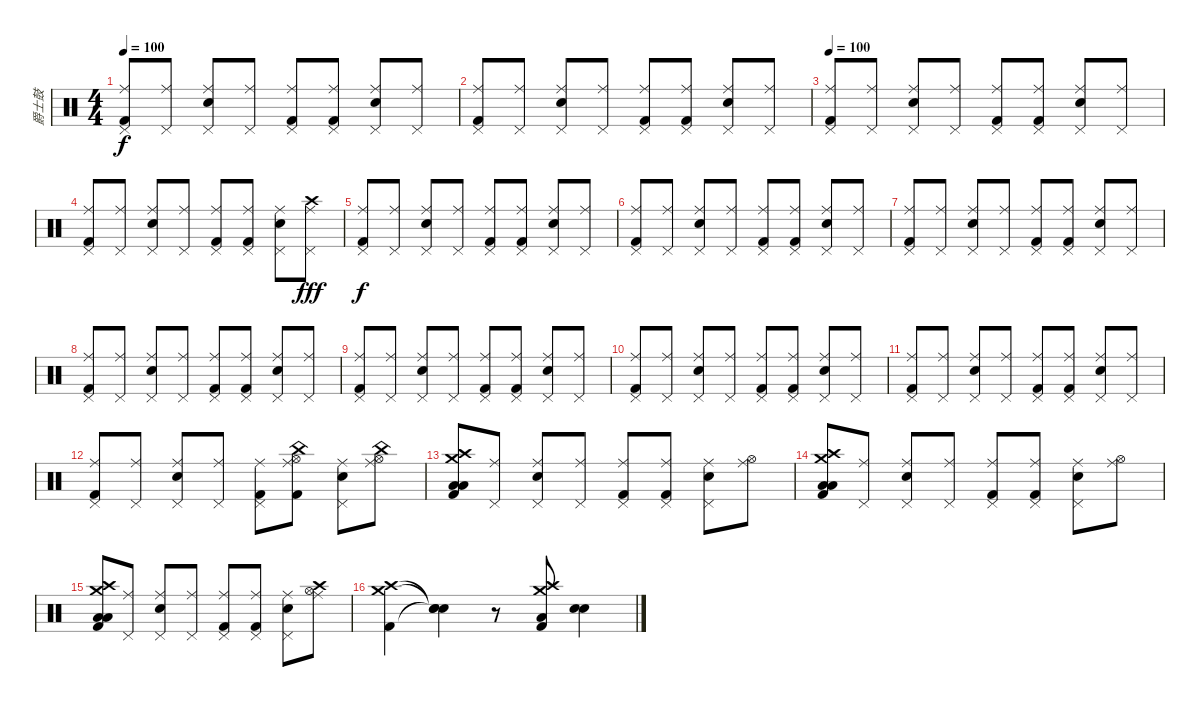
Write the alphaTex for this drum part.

\track ("爵士鼓" "爵士鼓") {instrument percussion}
\staff {score}
\articulation defaults
\ts (4 4)
\tempo 100
\clef neutral
\ks c
("Pedal Hi-Hat (hit)" "Ride (middle)" "Kick (hit) 2").8{dy f} ("Pedal Hi-Hat (hit)" "Ride (middle)").8 ("Pedal Hi-Hat (hit)" "Ride (middle)" "Snare (hit) 2").8 ("Pedal Hi-Hat (hit)" "Ride (middle)").8 ("Pedal Hi-Hat (hit)" "Ride (middle)" "Kick (hit) 2").8 ("Pedal Hi-Hat (hit)" "Ride (middle)" "Kick (hit) 2").8 ("Pedal Hi-Hat (hit)" "Ride (middle)" "Snare (hit) 2").8 ("Pedal Hi-Hat (hit)" "Ride (middle)").8 |
("Pedal Hi-Hat (hit)" "Ride (middle)" "Kick (hit) 2").8 ("Pedal Hi-Hat (hit)" "Ride (middle)").8 ("Pedal Hi-Hat (hit)" "Ride (middle)" "Snare (hit) 2").8 ("Pedal Hi-Hat (hit)" "Ride (middle)").8 ("Pedal Hi-Hat (hit)" "Ride (middle)" "Kick (hit) 2").8 ("Pedal Hi-Hat (hit)" "Ride (middle)" "Kick (hit) 2").8 ("Pedal Hi-Hat (hit)" "Ride (middle)" "Snare (hit) 2").8 ("Pedal Hi-Hat (hit)" "Ride (middle)").8 |
\tempo 100
("Pedal Hi-Hat (hit)" "Ride (middle)" "Kick (hit) 2").8 ("Pedal Hi-Hat (hit)" "Ride (middle)").8 ("Pedal Hi-Hat (hit)" "Ride (middle)" "Snare (hit) 2").8 ("Pedal Hi-Hat (hit)" "Ride (middle)").8 ("Pedal Hi-Hat (hit)" "Ride (middle)" "Kick (hit) 2").8 ("Pedal Hi-Hat (hit)" "Ride (middle)" "Kick (hit) 2").8 ("Pedal Hi-Hat (hit)" "Ride (middle)" "Snare (hit) 2").8 ("Pedal Hi-Hat (hit)" "Ride (middle)").8 |
("Pedal Hi-Hat (hit)" "Ride (middle)" "Kick (hit) 2").8 ("Pedal Hi-Hat (hit)" "Ride (middle)").8 ("Pedal Hi-Hat (hit)" "Ride (middle)" "Snare (hit) 2").8 ("Pedal Hi-Hat (hit)" "Ride (middle)").8 ("Pedal Hi-Hat (hit)" "Ride (middle)" "Kick (hit) 2").8 ("Pedal Hi-Hat (hit)" "Ride (middle)" "Kick (hit) 2").8 ("Pedal Hi-Hat (hit)" "Ride (middle)" "Snare (hit) 2").8 ("Pedal Hi-Hat (hit)" "Ride (middle)" "Crash high (hit)").8{dy fff} |
("Pedal Hi-Hat (hit)" "Ride (middle)" "Kick (hit) 2").8{dy f} ("Pedal Hi-Hat (hit)" "Ride (middle)").8 ("Pedal Hi-Hat (hit)" "Ride (middle)" "Snare (hit) 2").8 ("Pedal Hi-Hat (hit)" "Ride (middle)").8 ("Pedal Hi-Hat (hit)" "Ride (middle)" "Kick (hit) 2").8 ("Pedal Hi-Hat (hit)" "Ride (middle)" "Kick (hit) 2").8 ("Pedal Hi-Hat (hit)" "Ride (middle)" "Snare (hit) 2").8 ("Pedal Hi-Hat (hit)" "Ride (middle)").8 |
("Pedal Hi-Hat (hit)" "Ride (middle)" "Kick (hit) 2").8 ("Pedal Hi-Hat (hit)" "Ride (middle)").8 ("Pedal Hi-Hat (hit)" "Ride (middle)" "Snare (hit) 2").8 ("Pedal Hi-Hat (hit)" "Ride (middle)").8 ("Pedal Hi-Hat (hit)" "Ride (middle)" "Kick (hit) 2").8 ("Pedal Hi-Hat (hit)" "Ride (middle)" "Kick (hit) 2").8 ("Pedal Hi-Hat (hit)" "Ride (middle)" "Snare (hit) 2").8 ("Pedal Hi-Hat (hit)" "Ride (middle)").8 |
("Pedal Hi-Hat (hit)" "Ride (middle)" "Kick (hit) 2").8 ("Pedal Hi-Hat (hit)" "Ride (middle)").8 ("Pedal Hi-Hat (hit)" "Ride (middle)" "Snare (hit) 2").8 ("Pedal Hi-Hat (hit)" "Ride (middle)").8 ("Pedal Hi-Hat (hit)" "Ride (middle)" "Kick (hit) 2").8 ("Pedal Hi-Hat (hit)" "Ride (middle)" "Kick (hit) 2").8 ("Pedal Hi-Hat (hit)" "Ride (middle)" "Snare (hit) 2").8 ("Pedal Hi-Hat (hit)" "Ride (middle)").8 |
("Pedal Hi-Hat (hit)" "Ride (middle)" "Kick (hit) 2").8 ("Pedal Hi-Hat (hit)" "Ride (middle)").8 ("Pedal Hi-Hat (hit)" "Ride (middle)" "Snare (hit) 2").8 ("Pedal Hi-Hat (hit)" "Ride (middle)").8 ("Pedal Hi-Hat (hit)" "Ride (middle)" "Kick (hit) 2").8 ("Pedal Hi-Hat (hit)" "Ride (middle)" "Kick (hit) 2").8 ("Pedal Hi-Hat (hit)" "Ride (middle)" "Snare (hit) 2").8 ("Pedal Hi-Hat (hit)" "Ride (middle)").8 |
("Pedal Hi-Hat (hit)" "Ride (middle)" "Kick (hit) 2").8 ("Pedal Hi-Hat (hit)" "Ride (middle)").8 ("Pedal Hi-Hat (hit)" "Ride (middle)" "Snare (hit) 2").8 ("Pedal Hi-Hat (hit)" "Ride (middle)").8 ("Pedal Hi-Hat (hit)" "Ride (middle)" "Kick (hit) 2").8 ("Pedal Hi-Hat (hit)" "Ride (middle)" "Kick (hit) 2").8 ("Pedal Hi-Hat (hit)" "Ride (middle)" "Snare (hit) 2").8 ("Pedal Hi-Hat (hit)" "Ride (middle)").8 |
("Pedal Hi-Hat (hit)" "Ride (middle)" "Kick (hit) 2").8 ("Pedal Hi-Hat (hit)" "Ride (middle)").8 ("Pedal Hi-Hat (hit)" "Ride (middle)" "Snare (hit) 2").8 ("Pedal Hi-Hat (hit)" "Ride (middle)").8 ("Pedal Hi-Hat (hit)" "Ride (middle)" "Kick (hit) 2").8 ("Pedal Hi-Hat (hit)" "Ride (middle)" "Kick (hit) 2").8 ("Pedal Hi-Hat (hit)" "Ride (middle)" "Snare (hit) 2").8 ("Pedal Hi-Hat (hit)" "Ride (middle)").8 |
("Pedal Hi-Hat (hit)" "Ride (middle)" "Kick (hit) 2").8 ("Pedal Hi-Hat (hit)" "Ride (middle)").8 ("Pedal Hi-Hat (hit)" "Ride (middle)" "Snare (hit) 2").8 ("Pedal Hi-Hat (hit)" "Ride (middle)").8 ("Pedal Hi-Hat (hit)" "Ride (middle)" "Kick (hit) 2").8 ("Pedal Hi-Hat (hit)" "Ride (middle)" "Kick (hit) 2").8 ("Pedal Hi-Hat (hit)" "Ride (middle)" "Snare (hit) 2").8 ("Pedal Hi-Hat (hit)" "Ride (middle)").8 |
("Pedal Hi-Hat (hit)" "Ride (middle)" "Kick (hit) 2").8 ("Pedal Hi-Hat (hit)" "Ride (middle)").8 ("Pedal Hi-Hat (hit)" "Ride (middle)" "Snare (hit) 2").8 ("Pedal Hi-Hat (hit)" "Ride (middle)").8 ("Pedal Hi-Hat (hit)" "Ride (middle)" "Kick (hit) 2").8 ("Hi-Hat (open)" "Ride (middle)" "China (hit)" "Kick (hit) 2").8 ("Pedal Hi-Hat (hit)" "Ride (middle)" "Snare (hit) 2").8 ("Hi-Hat (open)" "Ride (middle)" "China (hit)").8 |
("Crash high (hit)" "Crash medium (hit)" "Low Tom (hit)" "Low Tom (hit)" "Kick (hit) 2").8 ("Pedal Hi-Hat (hit)" "Ride (middle)").8 ("Pedal Hi-Hat (hit)" "Ride (middle)" "Snare (hit) 2").8 ("Pedal Hi-Hat (hit)" "Ride (middle)").8 ("Pedal Hi-Hat (hit)" "Ride (middle)" "Kick (hit) 2").8 ("Pedal Hi-Hat (hit)" "Ride (middle)" "Kick (hit) 2").8 ("Pedal Hi-Hat (hit)" "Ride (middle)" "Snare (hit) 2").8 ("Hi-Hat (open)" "Ride (middle)").8 |
("Crash high (hit)" "Crash medium (hit)" "Low Tom (hit)" "Low Tom (hit)" "Kick (hit) 2").8 ("Pedal Hi-Hat (hit)" "Ride (middle)").8 ("Pedal Hi-Hat (hit)" "Ride (middle)" "Snare (hit) 2").8 ("Pedal Hi-Hat (hit)" "Ride (middle)").8 ("Pedal Hi-Hat (hit)" "Ride (middle)" "Kick (hit) 2").8 ("Pedal Hi-Hat (hit)" "Ride (middle)" "Kick (hit) 2").8 ("Pedal Hi-Hat (hit)" "Ride (middle)" "Snare (hit) 2").8 ("Hi-Hat (open)" "Ride (middle)").8 |
("Crash high (hit)" "Crash medium (hit)" "Low Tom (hit)" "Low Tom (hit)" "Kick (hit) 2").8 ("Pedal Hi-Hat (hit)" "Ride (middle)").8 ("Pedal Hi-Hat (hit)" "Ride (middle)" "Snare (hit) 2").8 ("Pedal Hi-Hat (hit)" "Ride (middle)").8 ("Pedal Hi-Hat (hit)" "Ride (middle)" "Kick (hit) 2").8 ("Pedal Hi-Hat (hit)" "Ride (middle)" "Kick (hit) 2").8 ("Pedal Hi-Hat (hit)" "Ride (middle)" "Snare (hit) 2").8 ("Hi-Hat (open)" "Ride (middle)" "Crash high (hit)").8 |
("Crash high (hit)" "Crash medium (hit)" "Kick (hit) 2").4 ("Snare (hit)"{t} "Snare (hit)"{t} "Snare (hit)"{t}).4 r.8 ("Crash high (hit)" "Crash medium (hit)" "Low Tom (hit)" "Kick (hit) 2").8 ("Snare (hit) 2" "Electric Snare (hit)").4
